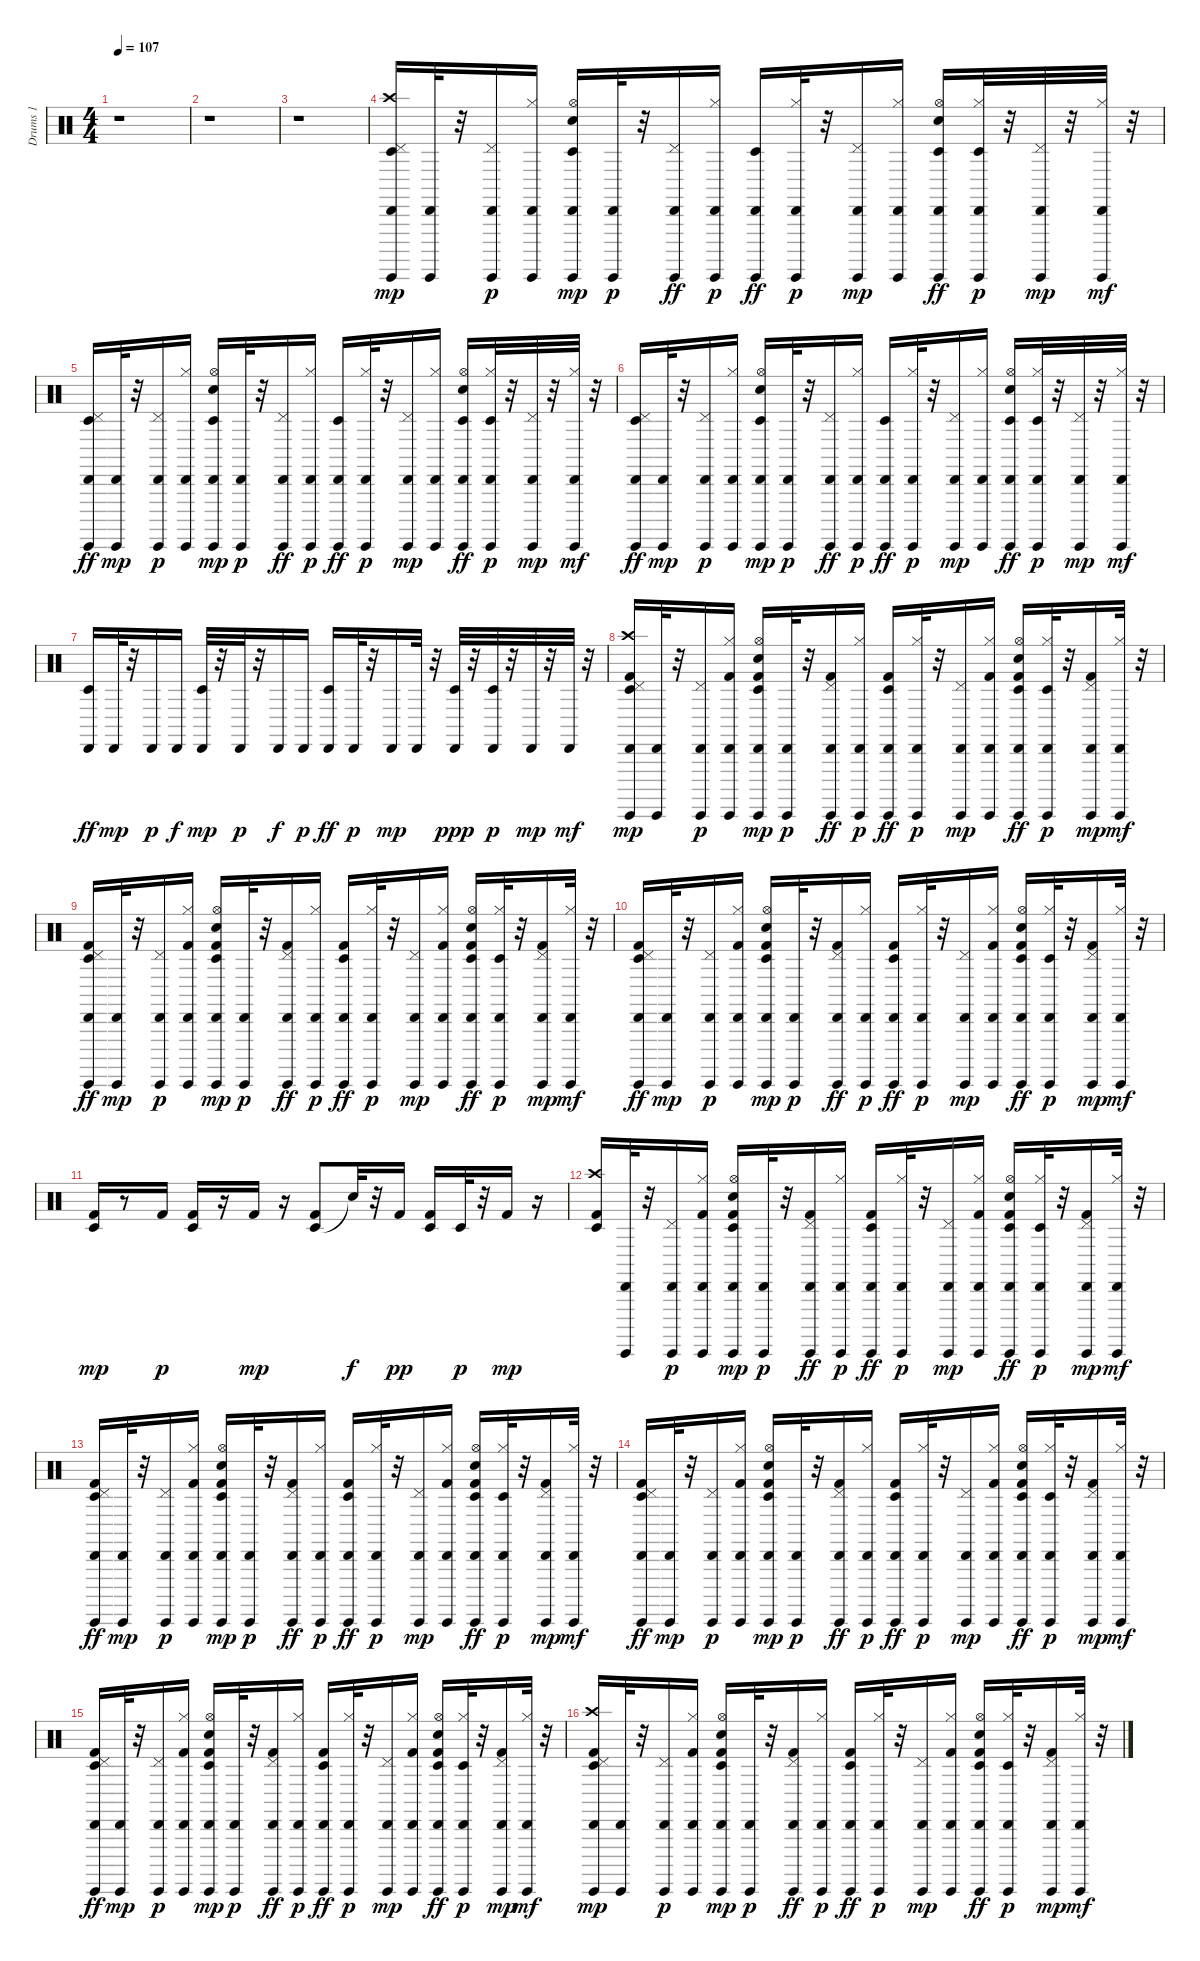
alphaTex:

\track ("Drums 1" "Drums 1") {instrument percussion}
\staff {score}
\articulation defaults
\ts (4 4)
\tempo 107
\clef neutral
\ks c
r.1{dy mp} |
r.1 |
r.1 |
("Timbale low (hit)" "Pedal Hi-Hat (hit)" "Guiro (hit)" "Cabasa (hit)" "Crash high (hit)").16 ("Guiro (hit)" "Cabasa (hit)").32 r.32 ("Pedal Hi-Hat (hit)" "Guiro (hit)" "Cabasa (hit)").16{dy p} ("Hi-Hat (closed)" "Guiro (hit)" "Cabasa (hit)").16 ("Timbale low (hit)" "Electric Snare (hit)" "Hi-Hat (open)" "Guiro (hit)" "Cabasa (hit)").16{dy mp} ("Guiro (hit)" "Cabasa (hit)").32{dy p} r.32 ("Pedal Hi-Hat (hit)" "Guiro (hit)" "Cabasa (hit)").16{dy ff} ("Hi-Hat (closed)" "Guiro (hit)" "Cabasa (hit)").16{dy p} ("Timbale low (hit)" "Guiro (hit)" "Cabasa (hit)").16{dy ff} ("Hi-Hat (closed)" "Guiro (hit)" "Cabasa (hit)").32{dy p} r.32 ("Pedal Hi-Hat (hit)" "Guiro (hit)" "Cabasa (hit)").16{dy mp} ("Hi-Hat (closed)" "Guiro (hit)" "Cabasa (hit)").16 ("Timbale low (hit)" "Electric Snare (hit)" "Hi-Hat (open)" "Guiro (hit)" "Cabasa (hit)").16{dy ff} ("Timbale low (hit)" "Hi-Hat (closed)" "Guiro (hit)" "Cabasa (hit)").32{dy p} r.32 ("Pedal Hi-Hat (hit)" "Guiro (hit)" "Cabasa (hit)").32{dy mp} r.32 ("Hi-Hat (closed)" "Guiro (hit)" "Cabasa (hit)").32{dy mf} r.32 |
("Timbale low (hit)" "Pedal Hi-Hat (hit)" "Guiro (hit)" "Cabasa (hit)").16{dy ff} ("Guiro (hit)" "Cabasa (hit)").32{dy mp} r.32 ("Pedal Hi-Hat (hit)" "Guiro (hit)" "Cabasa (hit)").16{dy p} ("Hi-Hat (closed)" "Guiro (hit)" "Cabasa (hit)").16 ("Timbale low (hit)" "Electric Snare (hit)" "Hi-Hat (open)" "Guiro (hit)" "Cabasa (hit)").16{dy mp} ("Guiro (hit)" "Cabasa (hit)").32{dy p} r.32 ("Pedal Hi-Hat (hit)" "Guiro (hit)" "Cabasa (hit)").16{dy ff} ("Hi-Hat (closed)" "Guiro (hit)" "Cabasa (hit)").16{dy p} ("Timbale low (hit)" "Guiro (hit)" "Cabasa (hit)").16{dy ff} ("Hi-Hat (closed)" "Guiro (hit)" "Cabasa (hit)").32{dy p} r.32 ("Pedal Hi-Hat (hit)" "Guiro (hit)" "Cabasa (hit)").16{dy mp} ("Hi-Hat (closed)" "Guiro (hit)" "Cabasa (hit)").16 ("Timbale low (hit)" "Electric Snare (hit)" "Hi-Hat (open)" "Guiro (hit)" "Cabasa (hit)").16{dy ff} ("Timbale low (hit)" "Hi-Hat (closed)" "Guiro (hit)" "Cabasa (hit)").32{dy p} r.32 ("Pedal Hi-Hat (hit)" "Guiro (hit)" "Cabasa (hit)").32{dy mp} r.32 ("Hi-Hat (closed)" "Guiro (hit)" "Cabasa (hit)").32{dy mf} r.32 |
("Timbale low (hit)" "Pedal Hi-Hat (hit)" "Guiro (hit)" "Cabasa (hit)").16{dy ff} ("Guiro (hit)" "Cabasa (hit)").32{dy mp} r.32 ("Pedal Hi-Hat (hit)" "Guiro (hit)" "Cabasa (hit)").16{dy p} ("Hi-Hat (closed)" "Guiro (hit)" "Cabasa (hit)").16 ("Timbale low (hit)" "Electric Snare (hit)" "Hi-Hat (open)" "Guiro (hit)" "Cabasa (hit)").16{dy mp} ("Guiro (hit)" "Cabasa (hit)").32{dy p} r.32 ("Pedal Hi-Hat (hit)" "Guiro (hit)" "Cabasa (hit)").16{dy ff} ("Hi-Hat (closed)" "Guiro (hit)" "Cabasa (hit)").16{dy p} ("Timbale low (hit)" "Guiro (hit)" "Cabasa (hit)").16{dy ff} ("Hi-Hat (closed)" "Guiro (hit)" "Cabasa (hit)").32{dy p} r.32 ("Pedal Hi-Hat (hit)" "Guiro (hit)" "Cabasa (hit)").16{dy mp} ("Hi-Hat (closed)" "Guiro (hit)" "Cabasa (hit)").16 ("Timbale low (hit)" "Electric Snare (hit)" "Hi-Hat (open)" "Guiro (hit)" "Cabasa (hit)").16{dy ff} ("Timbale low (hit)" "Hi-Hat (closed)" "Guiro (hit)" "Cabasa (hit)").32{dy p} r.32 ("Pedal Hi-Hat (hit)" "Guiro (hit)" "Cabasa (hit)").32{dy mp} r.32 ("Hi-Hat (closed)" "Guiro (hit)" "Cabasa (hit)").32{dy mf} r.32 |
("Timbale low (hit)" "Cabasa (hit)").16{dy ff} "Cabasa (hit)".32{dy mp} r.32 "Cabasa (hit)".16{dy p} "Cabasa (hit)".16{dy f} ("Timbale low (hit)" "Cabasa (hit)").32{dy mp} r.32 "Cabasa (hit)".32{dy p} r.32 "Cabasa (hit)".16{dy f} "Cabasa (hit)".16{dy p} ("Timbale low (hit)" "Cabasa (hit)").16{dy ff} "Cabasa (hit)".32{dy p} r.32 "Cabasa (hit)".16{dy mp} "Cabasa (hit)".32 r.32 ("Timbale low (hit)" "Cabasa (hit)").32{dy ppp} r.32 ("Timbale low (hit)" "Cabasa (hit)").32{dy p} r.32 "Cabasa (hit)".32{dy mp} r.32 "Cabasa (hit)".32{dy mf} r.32 |
("Timbale low (hit)" "Kick (hit) 2" "Pedal Hi-Hat (hit)" "Guiro (hit)" "Cabasa (hit)" "Crash high (hit)").16{dy mp} ("Guiro (hit)" "Cabasa (hit)").32 r.32 ("Pedal Hi-Hat (hit)" "Guiro (hit)" "Cabasa (hit)").16{dy p} ("Kick (hit) 2" "Hi-Hat (closed)" "Guiro (hit)" "Cabasa (hit)").16 ("Timbale low (hit)" "Kick (hit) 2" "Electric Snare (hit)" "Hi-Hat (open)" "Guiro (hit)" "Cabasa (hit)").16{dy mp} ("Guiro (hit)" "Cabasa (hit)").32{dy p} r.32 ("Kick (hit) 2" "Pedal Hi-Hat (hit)" "Guiro (hit)" "Cabasa (hit)").16{dy ff} ("Hi-Hat (closed)" "Guiro (hit)" "Cabasa (hit)").16{dy p} ("Timbale low (hit)" "Kick (hit) 2" "Guiro (hit)" "Cabasa (hit)").16{dy ff} ("Hi-Hat (closed)" "Guiro (hit)" "Cabasa (hit)").32{dy p} r.32 ("Pedal Hi-Hat (hit)" "Guiro (hit)" "Cabasa (hit)").16{dy mp} ("Kick (hit) 2" "Hi-Hat (closed)" "Guiro (hit)" "Cabasa (hit)").16 ("Timbale low (hit)" "Kick (hit) 2" "Electric Snare (hit)" "Hi-Hat (open)" "Guiro (hit)" "Cabasa (hit)").16{dy ff} ("Timbale low (hit)" "Hi-Hat (closed)" "Guiro (hit)" "Cabasa (hit)").32{dy p} r.32 ("Kick (hit) 2" "Pedal Hi-Hat (hit)" "Guiro (hit)" "Cabasa (hit)").16{dy mp} ("Hi-Hat (closed)" "Guiro (hit)" "Cabasa (hit)").32{dy mf} r.32 |
("Timbale low (hit)" "Kick (hit) 2" "Pedal Hi-Hat (hit)" "Guiro (hit)" "Cabasa (hit)").16{dy ff} ("Guiro (hit)" "Cabasa (hit)").32{dy mp} r.32 ("Pedal Hi-Hat (hit)" "Guiro (hit)" "Cabasa (hit)").16{dy p} ("Kick (hit) 2" "Hi-Hat (closed)" "Guiro (hit)" "Cabasa (hit)").16 ("Timbale low (hit)" "Kick (hit) 2" "Electric Snare (hit)" "Hi-Hat (open)" "Guiro (hit)" "Cabasa (hit)").16{dy mp} ("Guiro (hit)" "Cabasa (hit)").32{dy p} r.32 ("Kick (hit) 2" "Pedal Hi-Hat (hit)" "Guiro (hit)" "Cabasa (hit)").16{dy ff} ("Hi-Hat (closed)" "Guiro (hit)" "Cabasa (hit)").16{dy p} ("Timbale low (hit)" "Kick (hit) 2" "Guiro (hit)" "Cabasa (hit)").16{dy ff} ("Hi-Hat (closed)" "Guiro (hit)" "Cabasa (hit)").32{dy p} r.32 ("Pedal Hi-Hat (hit)" "Guiro (hit)" "Cabasa (hit)").16{dy mp} ("Kick (hit) 2" "Hi-Hat (closed)" "Guiro (hit)" "Cabasa (hit)").16 ("Timbale low (hit)" "Kick (hit) 2" "Electric Snare (hit)" "Hi-Hat (open)" "Guiro (hit)" "Cabasa (hit)").16{dy ff} ("Timbale low (hit)" "Hi-Hat (closed)" "Guiro (hit)" "Cabasa (hit)").32{dy p} r.32 ("Kick (hit) 2" "Pedal Hi-Hat (hit)" "Guiro (hit)" "Cabasa (hit)").16{dy mp} ("Hi-Hat (closed)" "Guiro (hit)" "Cabasa (hit)").32{dy mf} r.32 |
("Timbale low (hit)" "Kick (hit) 2" "Pedal Hi-Hat (hit)" "Guiro (hit)" "Cabasa (hit)").16{dy ff} ("Guiro (hit)" "Cabasa (hit)").32{dy mp} r.32 ("Pedal Hi-Hat (hit)" "Guiro (hit)" "Cabasa (hit)").16{dy p} ("Kick (hit) 2" "Hi-Hat (closed)" "Guiro (hit)" "Cabasa (hit)").16 ("Timbale low (hit)" "Kick (hit) 2" "Electric Snare (hit)" "Hi-Hat (open)" "Guiro (hit)" "Cabasa (hit)").16{dy mp} ("Guiro (hit)" "Cabasa (hit)").32{dy p} r.32 ("Kick (hit) 2" "Pedal Hi-Hat (hit)" "Guiro (hit)" "Cabasa (hit)").16{dy ff} ("Hi-Hat (closed)" "Guiro (hit)" "Cabasa (hit)").16{dy p} ("Timbale low (hit)" "Kick (hit) 2" "Guiro (hit)" "Cabasa (hit)").16{dy ff} ("Hi-Hat (closed)" "Guiro (hit)" "Cabasa (hit)").32{dy p} r.32 ("Pedal Hi-Hat (hit)" "Guiro (hit)" "Cabasa (hit)").16{dy mp} ("Kick (hit) 2" "Hi-Hat (closed)" "Guiro (hit)" "Cabasa (hit)").16 ("Timbale low (hit)" "Kick (hit) 2" "Electric Snare (hit)" "Hi-Hat (open)" "Guiro (hit)" "Cabasa (hit)").16{dy ff} ("Timbale low (hit)" "Hi-Hat (closed)" "Guiro (hit)" "Cabasa (hit)").32{dy p} r.32 ("Kick (hit) 2" "Pedal Hi-Hat (hit)" "Guiro (hit)" "Cabasa (hit)").16{dy mp} ("Hi-Hat (closed)" "Guiro (hit)" "Cabasa (hit)").32{dy mf} r.32 |
("Timbale low (hit)" "Kick (hit) 2").16{dy mp} r.8 "Kick (hit) 2".16{dy p} ("Timbale low (hit)" "Kick (hit) 2").16 r.16 "Kick (hit) 2".16{dy mp} r.16 ("Timbale low (hit)" "Kick (hit) 2").8 "Snare (hit)"{t}.32{dy f} r.32 "Kick (hit) 2".16{dy pp} ("Timbale low (hit)" "Kick (hit) 2").16 "Timbale low (hit)".32{dy p} r.32 "Kick (hit) 2".16{dy mp} r.16 |
("Timbale low (hit)" "Kick (hit) 2" "Crash high (hit)").16 ("Guiro (hit)" "Cabasa (hit)").32 r.32 ("Pedal Hi-Hat (hit)" "Guiro (hit)" "Cabasa (hit)").16{dy p} ("Kick (hit) 2" "Hi-Hat (closed)" "Guiro (hit)" "Cabasa (hit)").16 ("Timbale low (hit)" "Kick (hit) 2" "Electric Snare (hit)" "Hi-Hat (open)" "Guiro (hit)" "Cabasa (hit)").16{dy mp} ("Guiro (hit)" "Cabasa (hit)").32{dy p} r.32 ("Kick (hit) 2" "Pedal Hi-Hat (hit)" "Guiro (hit)" "Cabasa (hit)").16{dy ff} ("Hi-Hat (closed)" "Guiro (hit)" "Cabasa (hit)").16{dy p} ("Timbale low (hit)" "Kick (hit) 2" "Guiro (hit)" "Cabasa (hit)").16{dy ff} ("Hi-Hat (closed)" "Guiro (hit)" "Cabasa (hit)").32{dy p} r.32 ("Pedal Hi-Hat (hit)" "Guiro (hit)" "Cabasa (hit)").16{dy mp} ("Kick (hit) 2" "Hi-Hat (closed)" "Guiro (hit)" "Cabasa (hit)").16 ("Timbale low (hit)" "Kick (hit) 2" "Electric Snare (hit)" "Hi-Hat (open)" "Guiro (hit)" "Cabasa (hit)").16{dy ff} ("Timbale low (hit)" "Hi-Hat (closed)" "Guiro (hit)" "Cabasa (hit)").32{dy p} r.32 ("Kick (hit) 2" "Pedal Hi-Hat (hit)" "Guiro (hit)" "Cabasa (hit)").16{dy mp} ("Hi-Hat (closed)" "Guiro (hit)" "Cabasa (hit)").32{dy mf} r.32 |
("Timbale low (hit)" "Kick (hit) 2" "Pedal Hi-Hat (hit)" "Guiro (hit)" "Cabasa (hit)").16{dy ff} ("Guiro (hit)" "Cabasa (hit)").32{dy mp} r.32 ("Pedal Hi-Hat (hit)" "Guiro (hit)" "Cabasa (hit)").16{dy p} ("Kick (hit) 2" "Hi-Hat (closed)" "Guiro (hit)" "Cabasa (hit)").16 ("Timbale low (hit)" "Kick (hit) 2" "Electric Snare (hit)" "Hi-Hat (open)" "Guiro (hit)" "Cabasa (hit)").16{dy mp} ("Guiro (hit)" "Cabasa (hit)").32{dy p} r.32 ("Kick (hit) 2" "Pedal Hi-Hat (hit)" "Guiro (hit)" "Cabasa (hit)").16{dy ff} ("Hi-Hat (closed)" "Guiro (hit)" "Cabasa (hit)").16{dy p} ("Timbale low (hit)" "Kick (hit) 2" "Guiro (hit)" "Cabasa (hit)").16{dy ff} ("Hi-Hat (closed)" "Guiro (hit)" "Cabasa (hit)").32{dy p} r.32 ("Pedal Hi-Hat (hit)" "Guiro (hit)" "Cabasa (hit)").16{dy mp} ("Kick (hit) 2" "Hi-Hat (closed)" "Guiro (hit)" "Cabasa (hit)").16 ("Timbale low (hit)" "Kick (hit) 2" "Electric Snare (hit)" "Hi-Hat (open)" "Guiro (hit)" "Cabasa (hit)").16{dy ff} ("Timbale low (hit)" "Hi-Hat (closed)" "Guiro (hit)" "Cabasa (hit)").32{dy p} r.32 ("Kick (hit) 2" "Pedal Hi-Hat (hit)" "Guiro (hit)" "Cabasa (hit)").16{dy mp} ("Hi-Hat (closed)" "Guiro (hit)" "Cabasa (hit)").32{dy mf} r.32 |
("Timbale low (hit)" "Kick (hit) 2" "Pedal Hi-Hat (hit)" "Guiro (hit)" "Cabasa (hit)").16{dy ff} ("Guiro (hit)" "Cabasa (hit)").32{dy mp} r.32 ("Pedal Hi-Hat (hit)" "Guiro (hit)" "Cabasa (hit)").16{dy p} ("Kick (hit) 2" "Hi-Hat (closed)" "Guiro (hit)" "Cabasa (hit)").16 ("Timbale low (hit)" "Kick (hit) 2" "Electric Snare (hit)" "Hi-Hat (open)" "Guiro (hit)" "Cabasa (hit)").16{dy mp} ("Guiro (hit)" "Cabasa (hit)").32{dy p} r.32 ("Kick (hit) 2" "Pedal Hi-Hat (hit)" "Guiro (hit)" "Cabasa (hit)").16{dy ff} ("Hi-Hat (closed)" "Guiro (hit)" "Cabasa (hit)").16{dy p} ("Timbale low (hit)" "Kick (hit) 2" "Guiro (hit)" "Cabasa (hit)").16{dy ff} ("Hi-Hat (closed)" "Guiro (hit)" "Cabasa (hit)").32{dy p} r.32 ("Pedal Hi-Hat (hit)" "Guiro (hit)" "Cabasa (hit)").16{dy mp} ("Kick (hit) 2" "Hi-Hat (closed)" "Guiro (hit)" "Cabasa (hit)").16 ("Timbale low (hit)" "Kick (hit) 2" "Electric Snare (hit)" "Hi-Hat (open)" "Guiro (hit)" "Cabasa (hit)").16{dy ff} ("Timbale low (hit)" "Hi-Hat (closed)" "Guiro (hit)" "Cabasa (hit)").32{dy p} r.32 ("Kick (hit) 2" "Pedal Hi-Hat (hit)" "Guiro (hit)" "Cabasa (hit)").16{dy mp} ("Hi-Hat (closed)" "Guiro (hit)" "Cabasa (hit)").32{dy mf} r.32 |
("Timbale low (hit)" "Kick (hit) 2" "Pedal Hi-Hat (hit)" "Guiro (hit)" "Cabasa (hit)").16{dy ff} ("Guiro (hit)" "Cabasa (hit)").32{dy mp} r.32 ("Pedal Hi-Hat (hit)" "Guiro (hit)" "Cabasa (hit)").16{dy p} ("Kick (hit) 2" "Hi-Hat (closed)" "Guiro (hit)" "Cabasa (hit)").16 ("Timbale low (hit)" "Kick (hit) 2" "Electric Snare (hit)" "Hi-Hat (open)" "Guiro (hit)" "Cabasa (hit)").16{dy mp} ("Guiro (hit)" "Cabasa (hit)").32{dy p} r.32 ("Kick (hit) 2" "Pedal Hi-Hat (hit)" "Guiro (hit)" "Cabasa (hit)").16{dy ff} ("Hi-Hat (closed)" "Guiro (hit)" "Cabasa (hit)").16{dy p} ("Timbale low (hit)" "Kick (hit) 2" "Guiro (hit)" "Cabasa (hit)").16{dy ff} ("Hi-Hat (closed)" "Guiro (hit)" "Cabasa (hit)").32{dy p} r.32 ("Pedal Hi-Hat (hit)" "Guiro (hit)" "Cabasa (hit)").16{dy mp} ("Kick (hit) 2" "Hi-Hat (closed)" "Guiro (hit)" "Cabasa (hit)").16 ("Timbale low (hit)" "Kick (hit) 2" "Electric Snare (hit)" "Hi-Hat (open)" "Guiro (hit)" "Cabasa (hit)").16{dy ff} ("Timbale low (hit)" "Hi-Hat (closed)" "Guiro (hit)" "Cabasa (hit)").32{dy p} r.32 ("Kick (hit) 2" "Pedal Hi-Hat (hit)" "Guiro (hit)" "Cabasa (hit)").16{dy mp} ("Hi-Hat (closed)" "Guiro (hit)" "Cabasa (hit)").32{dy mf} r.32 |
("Timbale low (hit)" "Kick (hit) 2" "Pedal Hi-Hat (hit)" "Guiro (hit)" "Cabasa (hit)" "Crash high (hit)").16{dy mp} ("Guiro (hit)" "Cabasa (hit)").32 r.32 ("Pedal Hi-Hat (hit)" "Guiro (hit)" "Cabasa (hit)").16{dy p} ("Kick (hit) 2" "Hi-Hat (closed)" "Guiro (hit)" "Cabasa (hit)").16 ("Timbale low (hit)" "Kick (hit) 2" "Electric Snare (hit)" "Hi-Hat (open)" "Guiro (hit)" "Cabasa (hit)").16{dy mp} ("Guiro (hit)" "Cabasa (hit)").32{dy p} r.32 ("Kick (hit) 2" "Pedal Hi-Hat (hit)" "Guiro (hit)" "Cabasa (hit)").16{dy ff} ("Hi-Hat (closed)" "Guiro (hit)" "Cabasa (hit)").16{dy p} ("Timbale low (hit)" "Kick (hit) 2" "Guiro (hit)" "Cabasa (hit)").16{dy ff} ("Hi-Hat (closed)" "Guiro (hit)" "Cabasa (hit)").32{dy p} r.32 ("Pedal Hi-Hat (hit)" "Guiro (hit)" "Cabasa (hit)").16{dy mp} ("Kick (hit) 2" "Hi-Hat (closed)" "Guiro (hit)" "Cabasa (hit)").16 ("Timbale low (hit)" "Kick (hit) 2" "Electric Snare (hit)" "Hi-Hat (open)" "Guiro (hit)" "Cabasa (hit)").16{dy ff} ("Timbale low (hit)" "Hi-Hat (closed)" "Guiro (hit)" "Cabasa (hit)").32{dy p} r.32 ("Kick (hit) 2" "Pedal Hi-Hat (hit)" "Guiro (hit)" "Cabasa (hit)").16{dy mp} ("Hi-Hat (closed)" "Guiro (hit)" "Cabasa (hit)").32{dy mf} r.32
